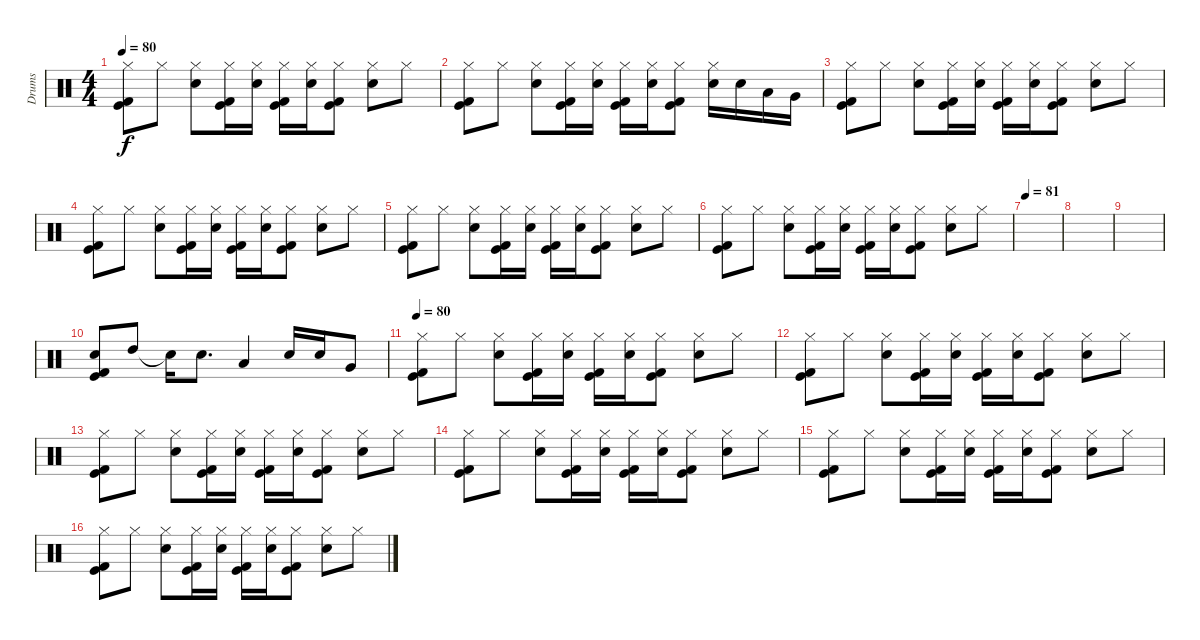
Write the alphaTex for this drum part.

\track ("Drums" "Drums") {instrument percussion}
\staff {score}
\articulation defaults
\ts (4 4)
\tempo 80
\clef neutral
\ks c
("Hi-Hat (closed)" "Kick (hit)" "Kick (hit) 2").8{dy f} "Hi-Hat (closed)".8 ("Hi-Hat (closed)" "Snare (hit) 2").8 ("Hi-Hat (closed)" "Kick (hit)" "Kick (hit) 2").16 ("Hi-Hat (closed)" "Snare (hit) 2").16 ("Hi-Hat (closed)" "Kick (hit)" "Kick (hit) 2").16 ("Hi-Hat (closed)" "Snare (hit) 2").16 ("Hi-Hat (closed)" "Kick (hit)" "Kick (hit) 2").8 ("Hi-Hat (closed)" "Snare (hit) 2").8 "Hi-Hat (closed)".8 |
("Hi-Hat (closed)" "Kick (hit)" "Kick (hit) 2").8 "Hi-Hat (closed)".8 ("Hi-Hat (closed)" "Snare (hit) 2").8 ("Hi-Hat (closed)" "Kick (hit)" "Kick (hit) 2").16 ("Hi-Hat (closed)" "Snare (hit) 2").16 ("Hi-Hat (closed)" "Kick (hit)" "Kick (hit) 2").16 ("Hi-Hat (closed)" "Snare (hit) 2").16 ("Hi-Hat (closed)" "Kick (hit)" "Kick (hit) 2").8 ("Hi-Hat (closed)" "Snare (hit) 2").16 "Snare (hit) 2".16 "Low Tom (hit)".16 "Very Low Tom (hit)".16 |
("Hi-Hat (closed)" "Kick (hit)" "Kick (hit) 2").8 "Hi-Hat (closed)".8 ("Hi-Hat (closed)" "Snare (hit) 2").8 ("Hi-Hat (closed)" "Kick (hit)" "Kick (hit) 2").16 ("Hi-Hat (closed)" "Snare (hit) 2").16 ("Hi-Hat (closed)" "Kick (hit)" "Kick (hit) 2").16 ("Hi-Hat (closed)" "Snare (hit) 2").16 ("Hi-Hat (closed)" "Kick (hit)" "Kick (hit) 2").8 ("Hi-Hat (closed)" "Snare (hit) 2").8 "Hi-Hat (closed)".8 |
("Hi-Hat (closed)" "Kick (hit)" "Kick (hit) 2").8 "Hi-Hat (closed)".8 ("Hi-Hat (closed)" "Snare (hit) 2").8 ("Hi-Hat (closed)" "Kick (hit)" "Kick (hit) 2").16 ("Hi-Hat (closed)" "Snare (hit) 2").16 ("Hi-Hat (closed)" "Kick (hit)" "Kick (hit) 2").16 ("Hi-Hat (closed)" "Snare (hit) 2").16 ("Hi-Hat (closed)" "Kick (hit)" "Kick (hit) 2").8 ("Hi-Hat (closed)" "Snare (hit) 2").8 "Hi-Hat (closed)".8 |
("Hi-Hat (closed)" "Kick (hit)" "Kick (hit) 2").8 "Hi-Hat (closed)".8 ("Hi-Hat (closed)" "Snare (hit) 2").8 ("Hi-Hat (closed)" "Kick (hit)" "Kick (hit) 2").16 ("Hi-Hat (closed)" "Snare (hit) 2").16 ("Hi-Hat (closed)" "Kick (hit)" "Kick (hit) 2").16 ("Hi-Hat (closed)" "Snare (hit) 2").16 ("Hi-Hat (closed)" "Kick (hit)" "Kick (hit) 2").8 ("Hi-Hat (closed)" "Snare (hit) 2").8 "Hi-Hat (closed)".8 |
("Hi-Hat (closed)" "Kick (hit)" "Kick (hit) 2").8 "Hi-Hat (closed)".8 ("Hi-Hat (closed)" "Snare (hit) 2").8 ("Hi-Hat (closed)" "Kick (hit)" "Kick (hit) 2").16 ("Hi-Hat (closed)" "Snare (hit) 2").16 ("Hi-Hat (closed)" "Kick (hit)" "Kick (hit) 2").16 ("Hi-Hat (closed)" "Snare (hit) 2").16 ("Hi-Hat (closed)" "Kick (hit)" "Kick (hit) 2").8 ("Hi-Hat (closed)" "Snare (hit) 2").8 "Hi-Hat (closed)".8 |
\tempo 81
|
|
|
("Snare (hit) 2" "Kick (hit)" "Kick (hit) 2").8 "High Tom (hit)".8 "Snare (hit)"{t}.16 "Snare (hit) 2".8{d} "Low Tom (hit)".4 "Snare (hit) 2".16 "Snare (hit) 2".16 "Very Low Tom (hit)".8 |
\tempo 80
("Hi-Hat (closed)" "Kick (hit)" "Kick (hit) 2").8 "Hi-Hat (closed)".8 ("Hi-Hat (closed)" "Snare (hit) 2").8 ("Hi-Hat (closed)" "Kick (hit)" "Kick (hit) 2").16 ("Hi-Hat (closed)" "Snare (hit) 2").16 ("Hi-Hat (closed)" "Kick (hit)" "Kick (hit) 2").16 ("Hi-Hat (closed)" "Snare (hit) 2").16 ("Hi-Hat (closed)" "Kick (hit)" "Kick (hit) 2").8 ("Hi-Hat (closed)" "Snare (hit) 2").8 "Hi-Hat (closed)".8 |
("Hi-Hat (closed)" "Kick (hit)" "Kick (hit) 2").8 "Hi-Hat (closed)".8 ("Hi-Hat (closed)" "Snare (hit) 2").8 ("Hi-Hat (closed)" "Kick (hit)" "Kick (hit) 2").16 ("Hi-Hat (closed)" "Snare (hit) 2").16 ("Hi-Hat (closed)" "Kick (hit)" "Kick (hit) 2").16 ("Hi-Hat (closed)" "Snare (hit) 2").16 ("Hi-Hat (closed)" "Kick (hit)" "Kick (hit) 2").8 ("Hi-Hat (closed)" "Snare (hit) 2").8 "Hi-Hat (closed)".8 |
("Hi-Hat (closed)" "Kick (hit)" "Kick (hit) 2").8 "Hi-Hat (closed)".8 ("Hi-Hat (closed)" "Snare (hit) 2").8 ("Hi-Hat (closed)" "Kick (hit)" "Kick (hit) 2").16 ("Hi-Hat (closed)" "Snare (hit) 2").16 ("Hi-Hat (closed)" "Kick (hit)" "Kick (hit) 2").16 ("Hi-Hat (closed)" "Snare (hit) 2").16 ("Hi-Hat (closed)" "Kick (hit)" "Kick (hit) 2").8 ("Hi-Hat (closed)" "Snare (hit) 2").8 "Hi-Hat (closed)".8 |
("Hi-Hat (closed)" "Kick (hit)" "Kick (hit) 2").8 "Hi-Hat (closed)".8 ("Hi-Hat (closed)" "Snare (hit) 2").8 ("Hi-Hat (closed)" "Kick (hit)" "Kick (hit) 2").16 ("Hi-Hat (closed)" "Snare (hit) 2").16 ("Hi-Hat (closed)" "Kick (hit)" "Kick (hit) 2").16 ("Hi-Hat (closed)" "Snare (hit) 2").16 ("Hi-Hat (closed)" "Kick (hit)" "Kick (hit) 2").8 ("Hi-Hat (closed)" "Snare (hit) 2").8 "Hi-Hat (closed)".8 |
("Hi-Hat (closed)" "Kick (hit)" "Kick (hit) 2").8 "Hi-Hat (closed)".8 ("Hi-Hat (closed)" "Snare (hit) 2").8 ("Hi-Hat (closed)" "Kick (hit)" "Kick (hit) 2").16 ("Hi-Hat (closed)" "Snare (hit) 2").16 ("Hi-Hat (closed)" "Kick (hit)" "Kick (hit) 2").16 ("Hi-Hat (closed)" "Snare (hit) 2").16 ("Hi-Hat (closed)" "Kick (hit)" "Kick (hit) 2").8 ("Hi-Hat (closed)" "Snare (hit) 2").8 "Hi-Hat (closed)".8 |
("Hi-Hat (closed)" "Kick (hit)" "Kick (hit) 2").8 "Hi-Hat (closed)".8 ("Hi-Hat (closed)" "Snare (hit) 2").8 ("Hi-Hat (closed)" "Kick (hit)" "Kick (hit) 2").16 ("Hi-Hat (closed)" "Snare (hit) 2").16 ("Hi-Hat (closed)" "Kick (hit)" "Kick (hit) 2").16 ("Hi-Hat (closed)" "Snare (hit) 2").16 ("Hi-Hat (closed)" "Kick (hit)" "Kick (hit) 2").8 ("Hi-Hat (closed)" "Snare (hit) 2").8 "Hi-Hat (closed)".8
